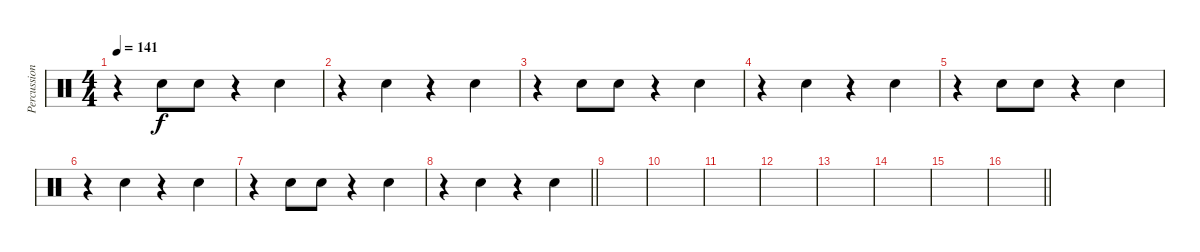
\track ("Percussion" "Percussion") {instrument percussion}
\staff {score}
\articulation defaults
\ts (4 4)
\tempo 141
\clef neutral
\ks c
r.4{dy f} "Hand Clap (hit)".8 "Hand Clap (hit)".8 r.4 "Hand Clap (hit)".4 |
r.4 "Hand Clap (hit)".4 r.4 "Hand Clap (hit)".4 |
r.4 "Hand Clap (hit)".8 "Hand Clap (hit)".8 r.4 "Hand Clap (hit)".4 |
r.4 "Hand Clap (hit)".4 r.4 "Hand Clap (hit)".4 |
r.4 "Hand Clap (hit)".8 "Hand Clap (hit)".8 r.4 "Hand Clap (hit)".4 |
r.4 "Hand Clap (hit)".4 r.4 "Hand Clap (hit)".4 |
r.4 "Hand Clap (hit)".8 "Hand Clap (hit)".8 r.4 "Hand Clap (hit)".4 |
\barLineRight lightlight
r.4 "Hand Clap (hit)".4 r.4 "Hand Clap (hit)".4 |
|
|
|
|
|
|
|
\barLineRight lightlight
